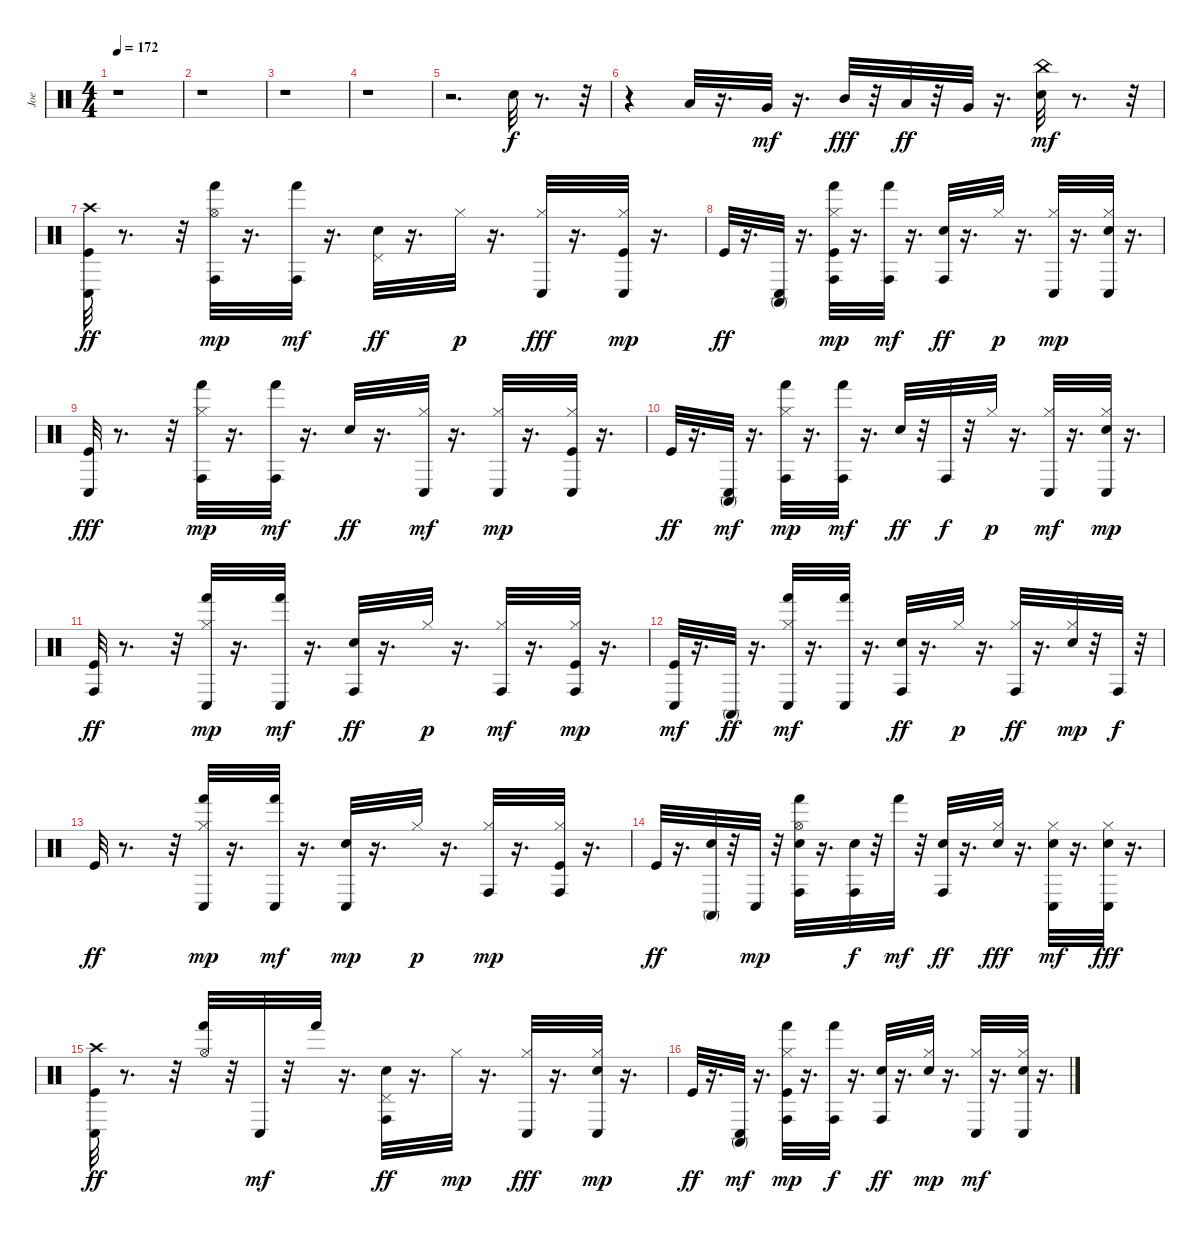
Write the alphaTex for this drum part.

\track ("Joe" "Joe") {instrument percussion}
\staff {score}
\articulation defaults
\ts (4 4)
\tempo 172
\clef neutral
\ks c
r.1{dy mf} |
r.1 |
r.1 |
r.1 |
r.2{d} "Snare (hit) 2".32{dy f} r.8{d} r.32 |
r.4 "Low Tom (hit)".32 r.16{d} "Very Low Tom (hit)".32{dy mf} r.16{d} "Mid Tom (hit)".32{dy fff} r.32 "Low Tom (hit)".32{dy ff} r.32 "Very Low Tom (hit)".32 r.16{d} ("Snare (hit) 2" "China (hit)").32{dy mf} r.8{d} r.32 |
("Kick (hit)" "Conga low (hit)" "Crash high (hit)").32{dy ff} r.8{d} r.32 ("Conga high (hit)" "Hi-Hat (open)" "Hand (hit)").32{dy mp} r.16{d} ("Hand (hit)" "Conga high (hit)").32{dy mf} r.16{d} ("Snare (hit) 2" "Pedal Hi-Hat (hit)").32{dy ff} r.16{d} "Hi-Hat (closed)".32{dy p} r.16{d} ("Conga low (hit)" "Hi-Hat (closed)").32{dy fff} r.16{d} ("Conga low (hit)" "Kick (hit)" "Hi-Hat (closed)").32{dy mp} r.16{d} |
"Kick (hit)".32{dy ff} r.16{d} ("Conga low (hit)" "Conga high (mute)").32 r.16{d} ("Kick (hit)" "Hi-Hat (closed)" "Conga high (hit)" "Hand (hit)").32{dy mp} r.16{d} ("Hand (hit)" "Conga high (hit)").32{dy mf} r.16{d} ("Conga high (hit)" "Snare (hit) 2").32{dy ff} r.16{d} "Hi-Hat (closed)".32{dy p} r.16{d} ("Hi-Hat (closed)" "Conga low (hit)").32{dy mp} r.16{d} ("Snare (hit) 2" "Conga low (hit)" "Hi-Hat (closed)").32 r.16{d} |
("Kick (hit)" "Conga low (hit)").32{dy fff} r.8{d} r.32 ("Conga high (hit)" "Hi-Hat (closed)" "Hand (hit)").32{dy mp} r.16{d} ("Conga high (hit)" "Hand (hit)").32{dy mf} r.16{d} "Snare (hit) 2".32{dy ff} r.16{d} ("Hi-Hat (closed)" "Conga low (hit)").32{dy mf} r.16{d} ("Hi-Hat (closed)" "Conga low (hit)").32{dy mp} r.16{d} ("Kick (hit)" "Conga low (hit)" "Hi-Hat (closed)").32 r.16{d} |
"Kick (hit)".32{dy ff} r.16{d} ("Conga high (mute)" "Conga low (hit)").32{dy mf} r.16{d} ("Conga high (hit)" "Hi-Hat (closed)" "Hand (hit)").32{dy mp} r.16{d} ("Conga high (hit)" "Hand (hit)").32{dy mf} r.16{d} "Snare (hit) 2".32{dy ff} r.32 "Conga high (hit)".32{dy f} r.32 "Hi-Hat (closed)".32{dy p} r.16{d} ("Hi-Hat (closed)" "Conga low (hit)").32{dy mf} r.16{d} ("Snare (hit) 2" "Conga low (hit)" "Hi-Hat (closed)").32{dy mp} r.16{d} |
("Conga high (hit)" "Kick (hit)").32{dy ff} r.8{d} r.32 ("Hi-Hat (closed)" "Conga low (hit)" "Hand (hit)").32{dy mp} r.16{d} ("Conga low (hit)" "Hand (hit)").32{dy mf} r.16{d} ("Snare (hit) 2" "Conga high (hit)").32{dy ff} r.16{d} "Hi-Hat (closed)".32{dy p} r.16{d} ("Hi-Hat (closed)" "Conga high (hit)").32{dy mf} r.16{d} ("Conga high (hit)" "Kick (hit)" "Hi-Hat (closed)").32{dy mp} r.16{d} |
("Kick (hit)" "Conga low (hit)").32{dy mf} r.16{d} "Conga high (mute)".32{dy ff} r.16{d} ("Hi-Hat (closed)" "Hand (hit)" "Conga low (hit)").32{dy mf} r.16{d} ("Conga low (hit)" "Hand (hit)").32 r.16{d} ("Conga high (hit)" "Snare (hit) 2").32{dy ff} r.16{d} "Hi-Hat (closed)".32{dy p} r.16{d} ("Hi-Hat (closed)" "Conga high (hit)").32{dy ff} r.16{d} ("Snare (hit) 2" "Hi-Hat (closed)").32{dy mp} r.32 "Conga high (hit)".32{dy f} r.32 |
"Kick (hit)".32{dy ff} r.8{d} r.32 ("Conga low (hit)" "Hi-Hat (closed)" "Hand (hit)").32{dy mp} r.16{d} ("Conga low (hit)" "Hand (hit)").32{dy mf} r.16{d} ("Snare (hit) 2" "Conga low (hit)").32{dy mp} r.16{d} "Hi-Hat (closed)".32{dy p} r.16{d} ("Hi-Hat (closed)" "Conga high (hit)").32{dy mp} r.16{d} ("Kick (hit)" "Conga high (hit)" "Hi-Hat (closed)").32 r.16{d} |
"Kick (hit)".32{dy ff} r.16{d} ("Snare (hit) 2" "Conga high (mute)").32 r.32 "Conga low (hit)".32{dy mp} r.32 ("Hi-Hat (open)" "Snare (hit) 2" "Conga high (hit)" "Hand (hit)").32 r.16{d} ("Conga high (hit)" "Snare (hit) 2").32{dy f} r.32 "Hand (hit)".32{dy mf} r.32 ("Snare (hit) 2" "Conga high (hit)").32{dy ff} r.16{d} ("Hi-Hat (closed)" "Snare (hit) 2").32{dy fff} r.16{d} ("Hi-Hat (closed)" "Snare (hit) 2" "Conga low (hit)").32{dy mf} r.16{d} ("Conga low (hit)" "Hi-Hat (closed)" "Snare (hit) 2").32{dy fff} r.16{d} |
("Kick (hit)" "Conga low (hit)" "Crash high (hit)").32{dy ff} r.8{d} r.32 ("Hand (hit)" "Hi-Hat (open)").32 r.32 "Conga low (hit)".32{dy mf} r.32 "Hand (hit)".32 r.16{d} ("Pedal Hi-Hat (hit)" "Snare (hit) 2" "Conga high (hit)").32{dy ff} r.16{d} "Hi-Hat (closed)".32{dy mp} r.16{d} ("Conga low (hit)" "Hi-Hat (closed)").32{dy fff} r.16{d} ("Conga low (hit)" "Snare (hit) 2" "Hi-Hat (closed)").32{dy mp} r.16{d} |
"Kick (hit)".32{dy ff} r.16{d} ("Conga high (mute)" "Conga low (hit)").32{dy mf} r.16{d} ("Conga high (hit)" "Hi-Hat (closed)" "Kick (hit)" "Hand (hit)").32{dy mp} r.16{d} ("Hand (hit)" "Conga high (hit)").32{dy f} r.16{d} ("Snare (hit) 2" "Conga high (hit)").32{dy ff} r.16{d} ("Hi-Hat (closed)" "Snare (hit) 2").32{dy mp} r.16{d} ("Hi-Hat (closed)" "Conga low (hit)").32{dy mf} r.16{d} ("Snare (hit) 2" "Hi-Hat (closed)" "Conga low (hit)").32 r.16{d}
